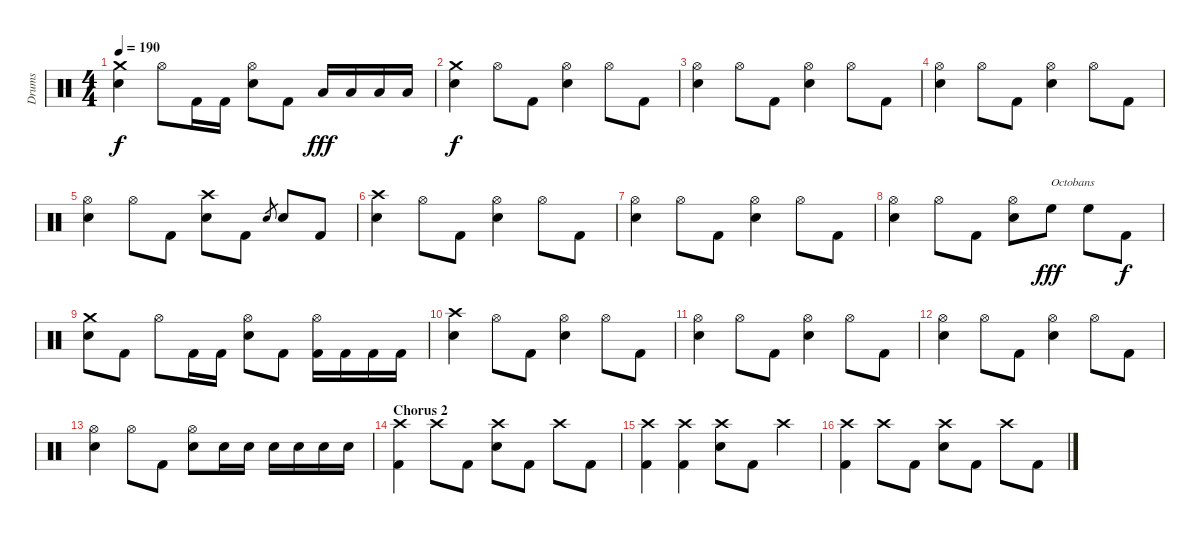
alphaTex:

\track ("Drums" "Drums") {instrument percussion}
\staff {score}
\articulation defaults
\ts (4 4)
\tempo 190
\clef neutral
\ks c
("Crash medium (hit)" "Electric Snare (hit)").4{dy f} "Hi-Hat (open)".8 "Kick (hit) 2".16 "Kick (hit) 2".16 ("Hi-Hat (open)" "Electric Snare (hit)").8 "Kick (hit) 2".8 "Low Floor Tom (hit)".16{dy fff} "Low Floor Tom (hit)".16 "Low Floor Tom (hit)".16 "Low Floor Tom (hit)".16 |
("Crash medium (hit)" "Electric Snare (hit)").4{dy f} "Hi-Hat (open)".8 "Kick (hit) 2".8 ("Hi-Hat (open)" "Electric Snare (hit)").4 "Hi-Hat (open)".8 "Kick (hit) 2".8 |
("Hi-Hat (open)" "Electric Snare (hit)").4 "Hi-Hat (open)".8 "Kick (hit) 2".8 ("Hi-Hat (open)" "Electric Snare (hit)").4 "Hi-Hat (open)".8 "Kick (hit) 2".8 |
("Hi-Hat (open)" "Electric Snare (hit)").4 "Hi-Hat (open)".8 "Kick (hit) 2".8 ("Hi-Hat (open)" "Electric Snare (hit)").4 "Hi-Hat (open)".8 "Kick (hit) 2".8 |
("Hi-Hat (open)" "Electric Snare (hit)").4 "Hi-Hat (open)".8 "Kick (hit) 2".8 ("Crash high (hit)" "Electric Snare (hit)").8 "Kick (hit) 2".8 "Electric Snare (hit)".8{gr} "Electric Snare (hit)".8 "Kick (hit) 2".8 |
("Crash high (hit)" "Electric Snare (hit)").4 "Hi-Hat (open)".8 "Kick (hit) 2".8 ("Hi-Hat (open)" "Electric Snare (hit)").4 "Hi-Hat (open)".8 "Kick (hit) 2".8 |
("Hi-Hat (open)" "Electric Snare (hit)").4 "Hi-Hat (open)".8 "Kick (hit) 2".8 ("Hi-Hat (open)" "Electric Snare (hit)").4 "Hi-Hat (open)".8 "Kick (hit) 2".8 |
("Hi-Hat (open)" "Electric Snare (hit)").4 "Hi-Hat (open)".8 "Kick (hit) 2".8 ("Hi-Hat (open)" "Electric Snare (hit)").8 "High Floor Tom (hit)".8{txt "Octobans" dy fff} "High Floor Tom (hit)".8 "Kick (hit) 2".8{dy f} |
("Crash medium (hit)" "Electric Snare (hit)").8 "Kick (hit) 2".8 "Hi-Hat (open)".8 "Kick (hit) 2".16 "Kick (hit) 2".16 ("Hi-Hat (open)" "Electric Snare (hit)").8 "Kick (hit) 2".8 ("Hi-Hat (open)" "Kick (hit) 2").16 "Kick (hit) 2".16 "Kick (hit) 2".16 "Kick (hit) 2".16 |
("Crash high (hit)" "Electric Snare (hit)").4 "Hi-Hat (open)".8 "Kick (hit) 2".8 ("Hi-Hat (open)" "Electric Snare (hit)").4 "Hi-Hat (open)".8 "Kick (hit) 2".8 |
("Hi-Hat (open)" "Electric Snare (hit)").4 "Hi-Hat (open)".8 "Kick (hit) 2".8 ("Hi-Hat (open)" "Electric Snare (hit)").4 "Hi-Hat (open)".8 "Kick (hit) 2".8 |
("Hi-Hat (open)" "Electric Snare (hit)").4 "Hi-Hat (open)".8 "Kick (hit) 2".8 ("Hi-Hat (open)" "Electric Snare (hit)").4 "Hi-Hat (open)".8 "Kick (hit) 2".8 |
("Hi-Hat (open)" "Electric Snare (hit)").4 "Hi-Hat (open)".8 "Kick (hit) 2".8 ("Hi-Hat (open)" "Electric Snare (hit)").8 "Electric Snare (hit)".16 "Electric Snare (hit)".16 "Electric Snare (hit)".16 "Electric Snare (hit)".16 "Electric Snare (hit)".16 "Electric Snare (hit)".16 |
\section ("" "Chorus 2")
("Crash high (hit)" "Kick (hit) 2").4 "Crash high (hit)".8 "Kick (hit) 2".8 ("Crash high (hit)" "Electric Snare (hit)").8 "Kick (hit) 2".8 "Crash high (hit)".8 "Kick (hit) 2".8 |
("Crash high (hit)" "Kick (hit) 2").4 ("Crash high (hit)" "Kick (hit) 2").4 ("Crash high (hit)" "Electric Snare (hit)").8 "Kick (hit) 2".8 "Crash high (hit)".4 |
("Crash high (hit)" "Kick (hit) 2").4 "Crash high (hit)".8 "Kick (hit) 2".8 ("Crash high (hit)" "Electric Snare (hit)").8 "Kick (hit) 2".8 "Crash high (hit)".8 "Kick (hit) 2".8
